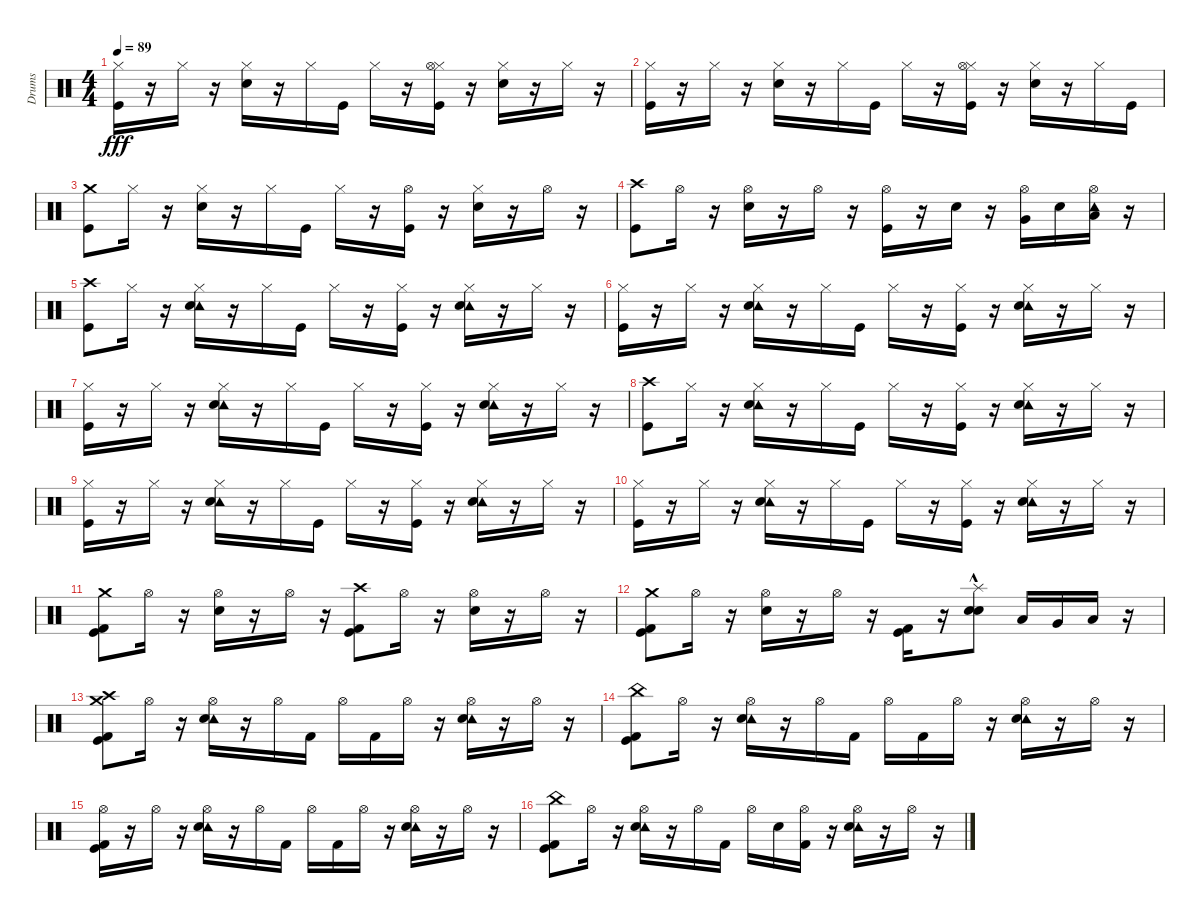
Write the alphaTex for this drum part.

\track ("Drums" "Drums") {instrument percussion}
\staff {score}
\articulation defaults
\ts (4 4)
\tempo 89
\clef neutral
\ks c
("Kick (hit)" "Hi-Hat (closed)").16{dy fff} r.16 "Hi-Hat (closed)".16 r.16 ("Hi-Hat (closed)" "Snare (hit) 2").16 r.16 "Hi-Hat (closed)".16 "Kick (hit)".16 "Hi-Hat (closed)".16 r.16 ("Hi-Hat (closed)" "Kick (hit)" "Hi-Hat (open)").16 r.16 ("Hi-Hat (closed)" "Snare (hit) 2").16 r.16 "Hi-Hat (closed)".16 r.16 |
("Kick (hit)" "Hi-Hat (closed)").16 r.16 "Hi-Hat (closed)".16 r.16 ("Hi-Hat (closed)" "Snare (hit) 2").16 r.16 "Hi-Hat (closed)".16 "Kick (hit)".16 "Hi-Hat (closed)".16 r.16 ("Kick (hit)" "Hi-Hat (closed)" "Hi-Hat (open)").16 r.16 ("Hi-Hat (closed)" "Snare (hit) 2").16 r.16 "Hi-Hat (closed)".16 "Kick (hit)".16 |
("Kick (hit)" "Crash medium (hit)").8 "Hi-Hat (closed)".16 r.16 ("Hi-Hat (closed)" "Snare (hit) 2").16 r.16 "Hi-Hat (closed)".16 "Kick (hit)".16 "Hi-Hat (closed)".16 r.16 ("Hi-Hat (open)" "Kick (hit)").16 r.16 ("Hi-Hat (closed)" "Snare (hit) 2").16 r.16 "Hi-Hat (open)".16 r.16 |
("Crash high (hit)" "Kick (hit)").8 "Hi-Hat (open)".16 r.16 ("Hi-Hat (open)" "Snare (hit) 2").16 r.16 "Hi-Hat (open)".16 r.16 ("Hi-Hat (open)" "Kick (hit)").16 r.16 "Snare (hit) 2".16 r.16 ("Hi-Hat (open)" "Very Low Tom (hit)").16 "Snare (hit) 2".16 ("Hi-Hat (open)" "Tambourine (hit)" "Low Floor Tom (hit)").16 r.16 |
("Kick (hit)" "Crash high (hit)").8 "Hi-Hat (closed)".16 r.16 ("Tambourine (hit)" "Hi-Hat (closed)" "Snare (hit) 2").16 r.16 "Hi-Hat (closed)".16 "Kick (hit)".16 "Hi-Hat (closed)".16 r.16 ("Kick (hit)" "Hi-Hat (closed)").16 r.16 ("Tambourine (hit)" "Hi-Hat (closed)" "Snare (hit) 2").16 r.16 "Hi-Hat (closed)".16 r.16 |
("Hi-Hat (closed)" "Kick (hit)").16 r.16 "Hi-Hat (closed)".16 r.16 ("Tambourine (hit)" "Hi-Hat (closed)" "Snare (hit) 2").16 r.16 "Hi-Hat (closed)".16 "Kick (hit)".16 "Hi-Hat (closed)".16 r.16 ("Kick (hit)" "Hi-Hat (closed)").16 r.16 ("Tambourine (hit)" "Hi-Hat (closed)" "Snare (hit) 2").16 r.16 "Hi-Hat (closed)".16 r.16 |
("Kick (hit)" "Hi-Hat (closed)").16 r.16 "Hi-Hat (closed)".16 r.16 ("Tambourine (hit)" "Hi-Hat (closed)" "Snare (hit) 2").16 r.16 "Hi-Hat (closed)".16 "Kick (hit)".16 "Hi-Hat (closed)".16 r.16 ("Kick (hit)" "Hi-Hat (closed)").16 r.16 ("Tambourine (hit)" "Hi-Hat (closed)" "Snare (hit) 2").16 r.16 "Hi-Hat (closed)".16 r.16 |
("Crash high (hit)" "Kick (hit)").8 "Hi-Hat (closed)".16 r.16 ("Tambourine (hit)" "Hi-Hat (closed)" "Snare (hit) 2").16 r.16 "Hi-Hat (closed)".16 "Kick (hit)".16 "Hi-Hat (closed)".16 r.16 ("Kick (hit)" "Hi-Hat (closed)").16 r.16 ("Tambourine (hit)" "Hi-Hat (closed)" "Snare (hit) 2").16 r.16 "Hi-Hat (closed)".16 r.16 |
("Hi-Hat (closed)" "Kick (hit)").16 r.16 "Hi-Hat (closed)".16 r.16 ("Tambourine (hit)" "Hi-Hat (closed)" "Snare (hit) 2").16 r.16 "Hi-Hat (closed)".16 "Kick (hit)".16 "Hi-Hat (closed)".16 r.16 ("Kick (hit)" "Hi-Hat (closed)").16 r.16 ("Tambourine (hit)" "Hi-Hat (closed)" "Snare (hit) 2").16 r.16 "Hi-Hat (closed)".16 r.16 |
("Kick (hit)" "Hi-Hat (closed)").16 r.16 "Hi-Hat (closed)".16 r.16 ("Tambourine (hit)" "Hi-Hat (closed)" "Snare (hit) 2").16 r.16 "Hi-Hat (closed)".16 "Kick (hit)".16 "Hi-Hat (closed)".16 r.16 ("Kick (hit)" "Hi-Hat (closed)").16 r.16 ("Tambourine (hit)" "Hi-Hat (closed)" "Snare (hit) 2").16 r.16 "Hi-Hat (closed)".16 r.16 |
("Kick (hit)" "Crash medium (hit)" "Kick (hit) 2").8 "Hi-Hat (open)".16 r.16 ("Hi-Hat (open)" "Snare (hit) 2").16 r.16 "Hi-Hat (open)".16 r.16 ("Crash high (hit)" "Kick (hit)" "Kick (hit) 2").8 "Hi-Hat (open)".16 r.16 ("Hi-Hat (open)" "Snare (hit) 2").16 r.16 "Hi-Hat (open)".16 r.16 |
("Kick (hit) 2" "Kick (hit)" "Crash medium (hit)").8 "Hi-Hat (open)".16 r.16 ("Hi-Hat (open)" "Snare (hit) 2").16 r.16 "Hi-Hat (open)".16 r.16 ("Kick (hit) 2" "Kick (hit)").16 r.16 ("Splash (hit)"{hac} "Snare (hit) 2" "Snare (hit) 2").8 "Low Tom (hit)".16 "Very Low Tom (hit)".16 "Low Floor Tom (hit)".16 r.16 |
("Crash medium (hit)" "Crash high (hit)" "Kick (hit) 2" "Kick (hit)").8 "Hi-Hat (open)".16 r.16 ("Hi-Hat (open)" "Tambourine (hit)" "Snare (hit) 2").16 r.16 "Hi-Hat (open)".16 "Kick (hit) 2".16 "Hi-Hat (open)".16 "Kick (hit) 2".16 "Hi-Hat (open)".16 r.16 ("Hi-Hat (open)" "Tambourine (hit)" "Snare (hit) 2").16 r.16 "Hi-Hat (open)".16 r.16 |
("Kick (hit)" "Kick (hit) 2" "China (hit)").8 "Hi-Hat (open)".16 r.16 ("Hi-Hat (open)" "Tambourine (hit)" "Snare (hit) 2").16 r.16 "Hi-Hat (open)".16 "Kick (hit) 2".16 "Hi-Hat (open)".16 "Kick (hit) 2".16 "Hi-Hat (open)".16 r.16 ("Hi-Hat (open)" "Tambourine (hit)" "Snare (hit) 2").16 r.16 "Hi-Hat (open)".16 r.16 |
("Kick (hit) 2" "Kick (hit)" "Hi-Hat (open)").16 r.16 "Hi-Hat (open)".16 r.16 ("Hi-Hat (open)" "Tambourine (hit)" "Snare (hit) 2").16 r.16 "Hi-Hat (open)".16 "Kick (hit) 2".16 "Hi-Hat (open)".16 "Kick (hit) 2".16 "Hi-Hat (open)".16 r.16 ("Hi-Hat (open)" "Tambourine (hit)" "Snare (hit) 2").16 r.16 "Hi-Hat (open)".16 r.16 |
("Kick (hit)" "Kick (hit) 2" "China (hit)").8 "Hi-Hat (open)".16 r.16 ("Hi-Hat (open)" "Tambourine (hit)" "Snare (hit) 2").16 r.16 "Hi-Hat (open)".16 "Kick (hit) 2".16 "Hi-Hat (open)".16 "Snare (hit) 2".16 ("Hi-Hat (open)" "Kick (hit) 2").16 r.16 ("Hi-Hat (open)" "Tambourine (hit)" "Snare (hit) 2").16 r.16 "Hi-Hat (open)".16 r.16
